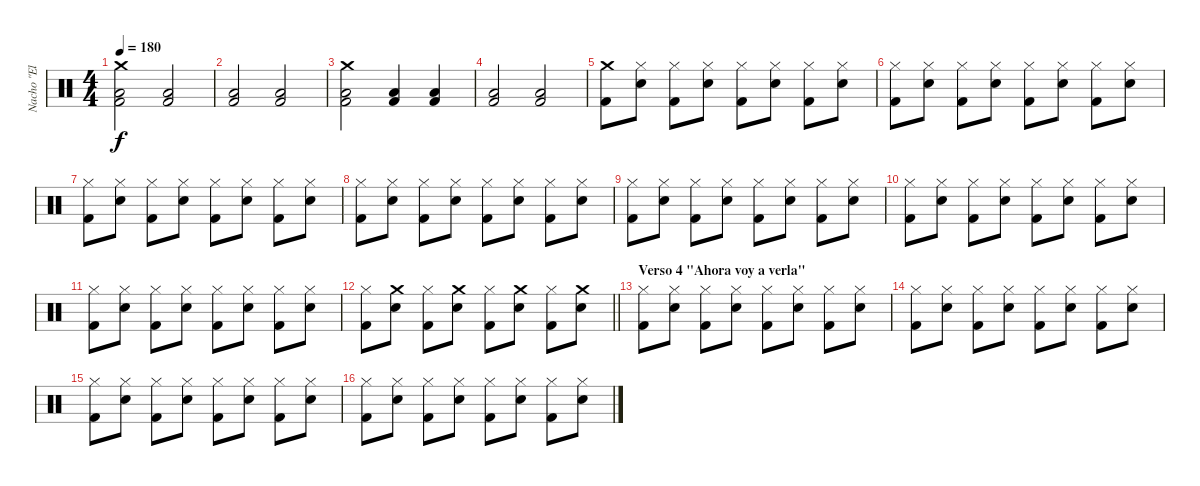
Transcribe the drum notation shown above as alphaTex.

\track ("Nacho \"El Implacable\"Gonzales" "Nacho \"El ") {instrument percussion}
\staff {score}
\articulation defaults
\ts (4 4)
\tempo 180
\clef neutral
\ks c
("Crash medium (hit)" "Low Floor Tom (hit)" "Kick (hit) 2").2{dy f} ("Low Floor Tom (hit)" "Kick (hit) 2").2 |
("Low Floor Tom (hit)" "Kick (hit) 2").2 ("Low Floor Tom (hit)" "Kick (hit) 2").2 |
("Crash medium (hit)" "Low Floor Tom (hit)" "Kick (hit) 2").2 ("Low Floor Tom (hit)" "Kick (hit) 2").4 ("Low Floor Tom (hit)" "Kick (hit) 2").4 |
("Low Floor Tom (hit)" "Kick (hit) 2").2 ("Low Floor Tom (hit)" "Kick (hit) 2").2 |
("Crash medium (hit)" "Kick (hit) 2").8 ("Hi-Hat (closed)" "Electric Snare (hit)").8 ("Hi-Hat (closed)" "Kick (hit) 2").8 ("Hi-Hat (closed)" "Electric Snare (hit)").8 ("Hi-Hat (closed)" "Kick (hit) 2").8 ("Hi-Hat (closed)" "Electric Snare (hit)").8 ("Hi-Hat (closed)" "Kick (hit) 2").8 ("Hi-Hat (closed)" "Electric Snare (hit)").8 |
("Hi-Hat (closed)" "Kick (hit) 2").8 ("Hi-Hat (closed)" "Electric Snare (hit)").8 ("Hi-Hat (closed)" "Kick (hit) 2").8 ("Hi-Hat (closed)" "Electric Snare (hit)").8 ("Hi-Hat (closed)" "Kick (hit) 2").8 ("Hi-Hat (closed)" "Electric Snare (hit)").8 ("Hi-Hat (closed)" "Kick (hit) 2").8 ("Hi-Hat (closed)" "Electric Snare (hit)").8 |
("Hi-Hat (closed)" "Kick (hit) 2").8 ("Hi-Hat (closed)" "Electric Snare (hit)").8 ("Hi-Hat (closed)" "Kick (hit) 2").8 ("Hi-Hat (closed)" "Electric Snare (hit)").8 ("Hi-Hat (closed)" "Kick (hit) 2").8 ("Hi-Hat (closed)" "Electric Snare (hit)").8 ("Hi-Hat (closed)" "Kick (hit) 2").8 ("Hi-Hat (closed)" "Electric Snare (hit)").8 |
("Hi-Hat (closed)" "Kick (hit) 2").8 ("Hi-Hat (closed)" "Electric Snare (hit)").8 ("Hi-Hat (closed)" "Kick (hit) 2").8 ("Hi-Hat (closed)" "Electric Snare (hit)").8 ("Hi-Hat (closed)" "Kick (hit) 2").8 ("Hi-Hat (closed)" "Electric Snare (hit)").8 ("Hi-Hat (closed)" "Kick (hit) 2").8 ("Hi-Hat (closed)" "Electric Snare (hit)").8 |
("Hi-Hat (closed)" "Kick (hit) 2").8 ("Hi-Hat (closed)" "Electric Snare (hit)").8 ("Hi-Hat (closed)" "Kick (hit) 2").8 ("Hi-Hat (closed)" "Electric Snare (hit)").8 ("Hi-Hat (closed)" "Kick (hit) 2").8 ("Hi-Hat (closed)" "Electric Snare (hit)").8 ("Hi-Hat (closed)" "Kick (hit) 2").8 ("Hi-Hat (closed)" "Electric Snare (hit)").8 |
("Hi-Hat (closed)" "Kick (hit) 2").8 ("Hi-Hat (closed)" "Electric Snare (hit)").8 ("Hi-Hat (closed)" "Kick (hit) 2").8 ("Hi-Hat (closed)" "Electric Snare (hit)").8 ("Hi-Hat (closed)" "Kick (hit) 2").8 ("Hi-Hat (closed)" "Electric Snare (hit)").8 ("Hi-Hat (closed)" "Kick (hit) 2").8 ("Hi-Hat (closed)" "Electric Snare (hit)").8 |
("Hi-Hat (closed)" "Kick (hit) 2").8 ("Hi-Hat (closed)" "Electric Snare (hit)").8 ("Hi-Hat (closed)" "Kick (hit) 2").8 ("Hi-Hat (closed)" "Electric Snare (hit)").8 ("Hi-Hat (closed)" "Kick (hit) 2").8 ("Hi-Hat (closed)" "Electric Snare (hit)").8 ("Hi-Hat (closed)" "Kick (hit) 2").8 ("Hi-Hat (closed)" "Electric Snare (hit)").8 |
\barLineRight lightlight
("Hi-Hat (closed)" "Kick (hit) 2").8 ("Crash medium (hit)" "Electric Snare (hit)").8 ("Hi-Hat (closed)" "Kick (hit) 2").8 ("Crash medium (hit)" "Electric Snare (hit)").8 ("Hi-Hat (closed)" "Kick (hit) 2").8 ("Crash medium (hit)" "Electric Snare (hit)").8 ("Hi-Hat (closed)" "Kick (hit) 2").8 ("Crash medium (hit)" "Electric Snare (hit)").8 |
\section ("" "Verso 4 \"Ahora voy a verla\"")
("Hi-Hat (closed)" "Kick (hit) 2").8 ("Hi-Hat (closed)" "Electric Snare (hit)").8 ("Hi-Hat (closed)" "Kick (hit) 2").8 ("Hi-Hat (closed)" "Electric Snare (hit)").8 ("Hi-Hat (closed)" "Kick (hit) 2").8 ("Hi-Hat (closed)" "Electric Snare (hit)").8 ("Hi-Hat (closed)" "Kick (hit) 2").8 ("Hi-Hat (closed)" "Electric Snare (hit)").8 |
("Hi-Hat (closed)" "Kick (hit) 2").8 ("Hi-Hat (closed)" "Electric Snare (hit)").8 ("Hi-Hat (closed)" "Kick (hit) 2").8 ("Hi-Hat (closed)" "Electric Snare (hit)").8 ("Hi-Hat (closed)" "Kick (hit) 2").8 ("Hi-Hat (closed)" "Electric Snare (hit)").8 ("Hi-Hat (closed)" "Kick (hit) 2").8 ("Hi-Hat (closed)" "Electric Snare (hit)").8 |
("Hi-Hat (closed)" "Kick (hit) 2").8 ("Hi-Hat (closed)" "Electric Snare (hit)").8 ("Hi-Hat (closed)" "Kick (hit) 2").8 ("Hi-Hat (closed)" "Electric Snare (hit)").8 ("Hi-Hat (closed)" "Kick (hit) 2").8 ("Hi-Hat (closed)" "Electric Snare (hit)").8 ("Hi-Hat (closed)" "Kick (hit) 2").8 ("Hi-Hat (closed)" "Electric Snare (hit)").8 |
("Hi-Hat (closed)" "Kick (hit) 2").8 ("Hi-Hat (closed)" "Electric Snare (hit)").8 ("Hi-Hat (closed)" "Kick (hit) 2").8 ("Hi-Hat (closed)" "Electric Snare (hit)").8 ("Hi-Hat (closed)" "Kick (hit) 2").8 ("Hi-Hat (closed)" "Electric Snare (hit)").8 ("Hi-Hat (closed)" "Kick (hit) 2").8 ("Hi-Hat (closed)" "Electric Snare (hit)").8
